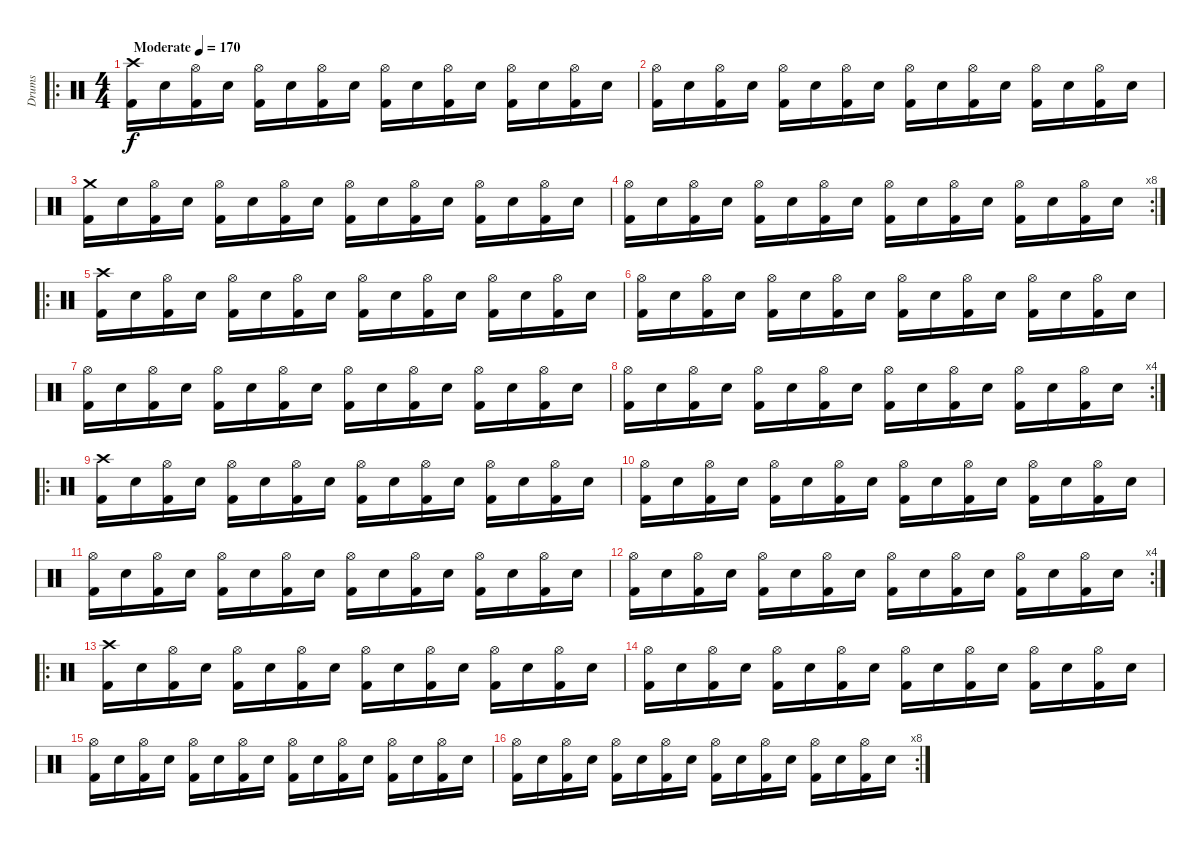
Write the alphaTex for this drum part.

\track ("Drums" "Drums") {instrument percussion}
\staff {score}
\articulation defaults
\ro
\ts (4 4)
\tempo (170 "Moderate")
\clef neutral
\ks c
("Crash high (hit)" "Kick (hit) 2").16{dy f} "Electric Snare (hit)".16 ("Hi-Hat (open)" "Kick (hit) 2").16 "Electric Snare (hit)".16 ("Hi-Hat (open)" "Kick (hit) 2").16 "Electric Snare (hit)".16 ("Hi-Hat (open)" "Kick (hit) 2").16 "Electric Snare (hit)".16 ("Hi-Hat (open)" "Kick (hit) 2").16 "Electric Snare (hit)".16 ("Hi-Hat (open)" "Kick (hit) 2").16 "Electric Snare (hit)".16 ("Hi-Hat (open)" "Kick (hit) 2").16 "Electric Snare (hit)".16 ("Hi-Hat (open)" "Kick (hit) 2").16 "Electric Snare (hit)".16 |
("Hi-Hat (open)" "Kick (hit) 2").16 "Electric Snare (hit)".16 ("Hi-Hat (open)" "Kick (hit) 2").16 "Electric Snare (hit)".16 ("Hi-Hat (open)" "Kick (hit) 2").16 "Electric Snare (hit)".16 ("Hi-Hat (open)" "Kick (hit) 2").16 "Electric Snare (hit)".16 ("Hi-Hat (open)" "Kick (hit) 2").16 "Electric Snare (hit)".16 ("Hi-Hat (open)" "Kick (hit) 2").16 "Electric Snare (hit)".16 ("Hi-Hat (open)" "Kick (hit) 2").16 "Electric Snare (hit)".16 ("Hi-Hat (open)" "Kick (hit) 2").16 "Electric Snare (hit)".16 |
("Crash medium (hit)" "Kick (hit) 2").16 "Electric Snare (hit)".16 ("Hi-Hat (open)" "Kick (hit) 2").16 "Electric Snare (hit)".16 ("Hi-Hat (open)" "Kick (hit) 2").16 "Electric Snare (hit)".16 ("Hi-Hat (open)" "Kick (hit) 2").16 "Electric Snare (hit)".16 ("Hi-Hat (open)" "Kick (hit) 2").16 "Electric Snare (hit)".16 ("Hi-Hat (open)" "Kick (hit) 2").16 "Electric Snare (hit)".16 ("Hi-Hat (open)" "Kick (hit) 2").16 "Electric Snare (hit)".16 ("Hi-Hat (open)" "Kick (hit) 2").16 "Electric Snare (hit)".16 |
\rc 8
("Hi-Hat (open)" "Kick (hit) 2").16 "Electric Snare (hit)".16 ("Hi-Hat (open)" "Kick (hit) 2").16 "Electric Snare (hit)".16 ("Hi-Hat (open)" "Kick (hit) 2").16 "Electric Snare (hit)".16 ("Hi-Hat (open)" "Kick (hit) 2").16 "Electric Snare (hit)".16 ("Hi-Hat (open)" "Kick (hit) 2").16 "Electric Snare (hit)".16 ("Hi-Hat (open)" "Kick (hit) 2").16 "Electric Snare (hit)".16 ("Hi-Hat (open)" "Kick (hit) 2").16 "Electric Snare (hit)".16 ("Hi-Hat (open)" "Kick (hit) 2").16 "Electric Snare (hit)".16 |
\ro
("Crash high (hit)" "Kick (hit) 2").16 "Electric Snare (hit)".16 ("Hi-Hat (open)" "Kick (hit) 2").16 "Electric Snare (hit)".16 ("Hi-Hat (open)" "Kick (hit) 2").16 "Electric Snare (hit)".16 ("Hi-Hat (open)" "Kick (hit) 2").16 "Electric Snare (hit)".16 ("Hi-Hat (open)" "Kick (hit) 2").16 "Electric Snare (hit)".16 ("Hi-Hat (open)" "Kick (hit) 2").16 "Electric Snare (hit)".16 ("Hi-Hat (open)" "Kick (hit) 2").16 "Electric Snare (hit)".16 ("Hi-Hat (open)" "Kick (hit) 2").16 "Electric Snare (hit)".16 |
("Hi-Hat (open)" "Kick (hit) 2").16 "Electric Snare (hit)".16 ("Hi-Hat (open)" "Kick (hit) 2").16 "Electric Snare (hit)".16 ("Hi-Hat (open)" "Kick (hit) 2").16 "Electric Snare (hit)".16 ("Hi-Hat (open)" "Kick (hit) 2").16 "Electric Snare (hit)".16 ("Hi-Hat (open)" "Kick (hit) 2").16 "Electric Snare (hit)".16 ("Hi-Hat (open)" "Kick (hit) 2").16 "Electric Snare (hit)".16 ("Hi-Hat (open)" "Kick (hit) 2").16 "Electric Snare (hit)".16 ("Hi-Hat (open)" "Kick (hit) 2").16 "Electric Snare (hit)".16 |
("Hi-Hat (open)" "Kick (hit) 2").16 "Electric Snare (hit)".16 ("Hi-Hat (open)" "Kick (hit) 2").16 "Electric Snare (hit)".16 ("Hi-Hat (open)" "Kick (hit) 2").16 "Electric Snare (hit)".16 ("Hi-Hat (open)" "Kick (hit) 2").16 "Electric Snare (hit)".16 ("Hi-Hat (open)" "Kick (hit) 2").16 "Electric Snare (hit)".16 ("Hi-Hat (open)" "Kick (hit) 2").16 "Electric Snare (hit)".16 ("Hi-Hat (open)" "Kick (hit) 2").16 "Electric Snare (hit)".16 ("Hi-Hat (open)" "Kick (hit) 2").16 "Electric Snare (hit)".16 |
\rc 4
("Hi-Hat (open)" "Kick (hit) 2").16 "Electric Snare (hit)".16 ("Hi-Hat (open)" "Kick (hit) 2").16 "Electric Snare (hit)".16 ("Hi-Hat (open)" "Kick (hit) 2").16 "Electric Snare (hit)".16 ("Hi-Hat (open)" "Kick (hit) 2").16 "Electric Snare (hit)".16 ("Hi-Hat (open)" "Kick (hit) 2").16 "Electric Snare (hit)".16 ("Hi-Hat (open)" "Kick (hit) 2").16 "Electric Snare (hit)".16 ("Hi-Hat (open)" "Kick (hit) 2").16 "Electric Snare (hit)".16 ("Hi-Hat (open)" "Kick (hit) 2").16 "Electric Snare (hit)".16 |
\ro
("Crash high (hit)" "Kick (hit) 2").16 "Electric Snare (hit)".16 ("Hi-Hat (open)" "Kick (hit) 2").16 "Electric Snare (hit)".16 ("Hi-Hat (open)" "Kick (hit) 2").16 "Electric Snare (hit)".16 ("Hi-Hat (open)" "Kick (hit) 2").16 "Electric Snare (hit)".16 ("Hi-Hat (open)" "Kick (hit) 2").16 "Electric Snare (hit)".16 ("Hi-Hat (open)" "Kick (hit) 2").16 "Electric Snare (hit)".16 ("Hi-Hat (open)" "Kick (hit) 2").16 "Electric Snare (hit)".16 ("Hi-Hat (open)" "Kick (hit) 2").16 "Electric Snare (hit)".16 |
("Hi-Hat (open)" "Kick (hit) 2").16 "Electric Snare (hit)".16 ("Hi-Hat (open)" "Kick (hit) 2").16 "Electric Snare (hit)".16 ("Hi-Hat (open)" "Kick (hit) 2").16 "Electric Snare (hit)".16 ("Hi-Hat (open)" "Kick (hit) 2").16 "Electric Snare (hit)".16 ("Hi-Hat (open)" "Kick (hit) 2").16 "Electric Snare (hit)".16 ("Hi-Hat (open)" "Kick (hit) 2").16 "Electric Snare (hit)".16 ("Hi-Hat (open)" "Kick (hit) 2").16 "Electric Snare (hit)".16 ("Hi-Hat (open)" "Kick (hit) 2").16 "Electric Snare (hit)".16 |
("Hi-Hat (open)" "Kick (hit) 2").16 "Electric Snare (hit)".16 ("Hi-Hat (open)" "Kick (hit) 2").16 "Electric Snare (hit)".16 ("Hi-Hat (open)" "Kick (hit) 2").16 "Electric Snare (hit)".16 ("Hi-Hat (open)" "Kick (hit) 2").16 "Electric Snare (hit)".16 ("Hi-Hat (open)" "Kick (hit) 2").16 "Electric Snare (hit)".16 ("Hi-Hat (open)" "Kick (hit) 2").16 "Electric Snare (hit)".16 ("Hi-Hat (open)" "Kick (hit) 2").16 "Electric Snare (hit)".16 ("Hi-Hat (open)" "Kick (hit) 2").16 "Electric Snare (hit)".16 |
\rc 4
("Hi-Hat (open)" "Kick (hit) 2").16 "Electric Snare (hit)".16 ("Hi-Hat (open)" "Kick (hit) 2").16 "Electric Snare (hit)".16 ("Hi-Hat (open)" "Kick (hit) 2").16 "Electric Snare (hit)".16 ("Hi-Hat (open)" "Kick (hit) 2").16 "Electric Snare (hit)".16 ("Hi-Hat (open)" "Kick (hit) 2").16 "Electric Snare (hit)".16 ("Hi-Hat (open)" "Kick (hit) 2").16 "Electric Snare (hit)".16 ("Hi-Hat (open)" "Kick (hit) 2").16 "Electric Snare (hit)".16 ("Hi-Hat (open)" "Kick (hit) 2").16 "Electric Snare (hit)".16 |
\ro
("Crash high (hit)" "Kick (hit) 2").16 "Electric Snare (hit)".16 ("Hi-Hat (open)" "Kick (hit) 2").16 "Electric Snare (hit)".16 ("Hi-Hat (open)" "Kick (hit) 2").16 "Electric Snare (hit)".16 ("Hi-Hat (open)" "Kick (hit) 2").16 "Electric Snare (hit)".16 ("Hi-Hat (open)" "Kick (hit) 2").16 "Electric Snare (hit)".16 ("Hi-Hat (open)" "Kick (hit) 2").16 "Electric Snare (hit)".16 ("Hi-Hat (open)" "Kick (hit) 2").16 "Electric Snare (hit)".16 ("Hi-Hat (open)" "Kick (hit) 2").16 "Electric Snare (hit)".16 |
("Hi-Hat (open)" "Kick (hit) 2").16 "Electric Snare (hit)".16 ("Hi-Hat (open)" "Kick (hit) 2").16 "Electric Snare (hit)".16 ("Hi-Hat (open)" "Kick (hit) 2").16 "Electric Snare (hit)".16 ("Hi-Hat (open)" "Kick (hit) 2").16 "Electric Snare (hit)".16 ("Hi-Hat (open)" "Kick (hit) 2").16 "Electric Snare (hit)".16 ("Hi-Hat (open)" "Kick (hit) 2").16 "Electric Snare (hit)".16 ("Hi-Hat (open)" "Kick (hit) 2").16 "Electric Snare (hit)".16 ("Hi-Hat (open)" "Kick (hit) 2").16 "Electric Snare (hit)".16 |
("Hi-Hat (open)" "Kick (hit) 2").16 "Electric Snare (hit)".16 ("Hi-Hat (open)" "Kick (hit) 2").16 "Electric Snare (hit)".16 ("Hi-Hat (open)" "Kick (hit) 2").16 "Electric Snare (hit)".16 ("Hi-Hat (open)" "Kick (hit) 2").16 "Electric Snare (hit)".16 ("Hi-Hat (open)" "Kick (hit) 2").16 "Electric Snare (hit)".16 ("Hi-Hat (open)" "Kick (hit) 2").16 "Electric Snare (hit)".16 ("Hi-Hat (open)" "Kick (hit) 2").16 "Electric Snare (hit)".16 ("Hi-Hat (open)" "Kick (hit) 2").16 "Electric Snare (hit)".16 |
\rc 8
("Hi-Hat (open)" "Kick (hit) 2").16 "Electric Snare (hit)".16 ("Hi-Hat (open)" "Kick (hit) 2").16 "Electric Snare (hit)".16 ("Hi-Hat (open)" "Kick (hit) 2").16 "Electric Snare (hit)".16 ("Hi-Hat (open)" "Kick (hit) 2").16 "Electric Snare (hit)".16 ("Hi-Hat (open)" "Kick (hit) 2").16 "Electric Snare (hit)".16 ("Hi-Hat (open)" "Kick (hit) 2").16 "Electric Snare (hit)".16 ("Hi-Hat (open)" "Kick (hit) 2").16 "Electric Snare (hit)".16 ("Hi-Hat (open)" "Kick (hit) 2").16 "Electric Snare (hit)".16
